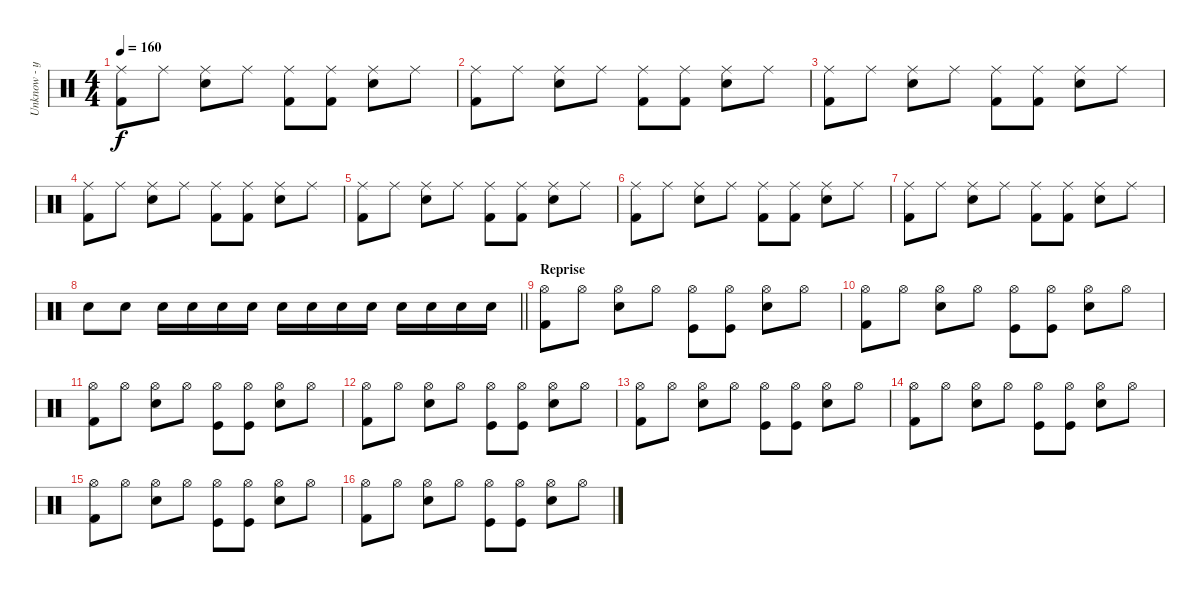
\track ("Unknow - ударные" "Unknow - у") {instrument percussion}
\staff {score}
\articulation defaults
\ts (4 4)
\tempo 160
\clef neutral
\ks c
("Ride (middle)" "Kick (hit) 2").8{dy f} "Ride (middle)".8 ("Ride (middle)" "Snare (hit) 2").8 "Ride (middle)".8 ("Ride (middle)" "Kick (hit) 2").8 ("Ride (middle)" "Kick (hit) 2").8 ("Ride (middle)" "Snare (hit) 2").8 "Ride (middle)".8 |
("Ride (middle)" "Kick (hit) 2").8 "Ride (middle)".8 ("Ride (middle)" "Snare (hit) 2").8 "Ride (middle)".8 ("Ride (middle)" "Kick (hit) 2").8 ("Ride (middle)" "Kick (hit) 2").8 ("Ride (middle)" "Snare (hit) 2").8 "Ride (middle)".8 |
("Ride (middle)" "Kick (hit) 2").8 "Ride (middle)".8 ("Ride (middle)" "Snare (hit) 2").8 "Ride (middle)".8 ("Ride (middle)" "Kick (hit) 2").8 ("Ride (middle)" "Kick (hit) 2").8 ("Ride (middle)" "Snare (hit) 2").8 "Ride (middle)".8 |
("Ride (middle)" "Kick (hit) 2").8 "Ride (middle)".8 ("Ride (middle)" "Snare (hit) 2").8 "Ride (middle)".8 ("Ride (middle)" "Kick (hit) 2").8 ("Ride (middle)" "Kick (hit) 2").8 ("Ride (middle)" "Snare (hit) 2").8 "Ride (middle)".8 |
("Ride (middle)" "Kick (hit) 2").8 "Ride (middle)".8 ("Ride (middle)" "Snare (hit) 2").8 "Ride (middle)".8 ("Ride (middle)" "Kick (hit) 2").8 ("Ride (middle)" "Kick (hit) 2").8 ("Ride (middle)" "Snare (hit) 2").8 "Ride (middle)".8 |
("Ride (middle)" "Kick (hit) 2").8 "Ride (middle)".8 ("Ride (middle)" "Snare (hit) 2").8 "Ride (middle)".8 ("Ride (middle)" "Kick (hit) 2").8 ("Ride (middle)" "Kick (hit) 2").8 ("Ride (middle)" "Snare (hit) 2").8 "Ride (middle)".8 |
("Ride (middle)" "Kick (hit) 2").8 "Ride (middle)".8 ("Ride (middle)" "Snare (hit) 2").8 "Ride (middle)".8 ("Ride (middle)" "Kick (hit) 2").8 ("Ride (middle)" "Kick (hit) 2").8 ("Ride (middle)" "Snare (hit) 2").8 "Ride (middle)".8 |
\barLineRight lightlight "Snare (hit) 2".8 "Snare (hit) 2".8 "Snare (hit) 2".16 "Snare (hit) 2".16 "Snare (hit) 2".16 "Snare (hit) 2".16 "Snare (hit) 2".16 "Snare (hit) 2".16 "Snare (hit) 2".16 "Snare (hit) 2".16 "Snare (hit) 2".16 "Snare (hit) 2".16 "Snare (hit) 2".16 "Snare (hit) 2".16
|
\section ("" "Reprise")
("Hi-Hat (open)" "Kick (hit) 2").8 "Hi-Hat (open)".8 ("Hi-Hat (open)" "Snare (hit) 2").8 "Hi-Hat (open)".8 ("Hi-Hat (open)" "Kick (hit)").8 ("Hi-Hat (open)" "Kick (hit)").8 ("Hi-Hat (open)" "Snare (hit) 2").8 "Hi-Hat (open)".8 |
("Hi-Hat (open)" "Kick (hit) 2").8 "Hi-Hat (open)".8 ("Hi-Hat (open)" "Snare (hit) 2").8 "Hi-Hat (open)".8 ("Hi-Hat (open)" "Kick (hit)").8 ("Hi-Hat (open)" "Kick (hit)").8 ("Hi-Hat (open)" "Snare (hit) 2").8 "Hi-Hat (open)".8 |
("Hi-Hat (open)" "Kick (hit) 2").8 "Hi-Hat (open)".8 ("Hi-Hat (open)" "Snare (hit) 2").8 "Hi-Hat (open)".8 ("Hi-Hat (open)" "Kick (hit)").8 ("Hi-Hat (open)" "Kick (hit)").8 ("Hi-Hat (open)" "Snare (hit) 2").8 "Hi-Hat (open)".8 |
("Hi-Hat (open)" "Kick (hit) 2").8 "Hi-Hat (open)".8 ("Hi-Hat (open)" "Snare (hit) 2").8 "Hi-Hat (open)".8 ("Hi-Hat (open)" "Kick (hit)").8 ("Hi-Hat (open)" "Kick (hit)").8 ("Hi-Hat (open)" "Snare (hit) 2").8 "Hi-Hat (open)".8 |
("Hi-Hat (open)" "Kick (hit) 2").8 "Hi-Hat (open)".8 ("Hi-Hat (open)" "Snare (hit) 2").8 "Hi-Hat (open)".8 ("Hi-Hat (open)" "Kick (hit)").8 ("Hi-Hat (open)" "Kick (hit)").8 ("Hi-Hat (open)" "Snare (hit) 2").8 "Hi-Hat (open)".8 |
("Hi-Hat (open)" "Kick (hit) 2").8 "Hi-Hat (open)".8 ("Hi-Hat (open)" "Snare (hit) 2").8 "Hi-Hat (open)".8 ("Hi-Hat (open)" "Kick (hit)").8 ("Hi-Hat (open)" "Kick (hit)").8 ("Hi-Hat (open)" "Snare (hit) 2").8 "Hi-Hat (open)".8 |
("Hi-Hat (open)" "Kick (hit) 2").8 "Hi-Hat (open)".8 ("Hi-Hat (open)" "Snare (hit) 2").8 "Hi-Hat (open)".8 ("Hi-Hat (open)" "Kick (hit)").8 ("Hi-Hat (open)" "Kick (hit)").8 ("Hi-Hat (open)" "Snare (hit) 2").8 "Hi-Hat (open)".8 |
("Hi-Hat (open)" "Kick (hit) 2").8 "Hi-Hat (open)".8 ("Hi-Hat (open)" "Snare (hit) 2").8 "Hi-Hat (open)".8 ("Hi-Hat (open)" "Kick (hit)").8 ("Hi-Hat (open)" "Kick (hit)").8 ("Hi-Hat (open)" "Snare (hit) 2").8 "Hi-Hat (open)".8
